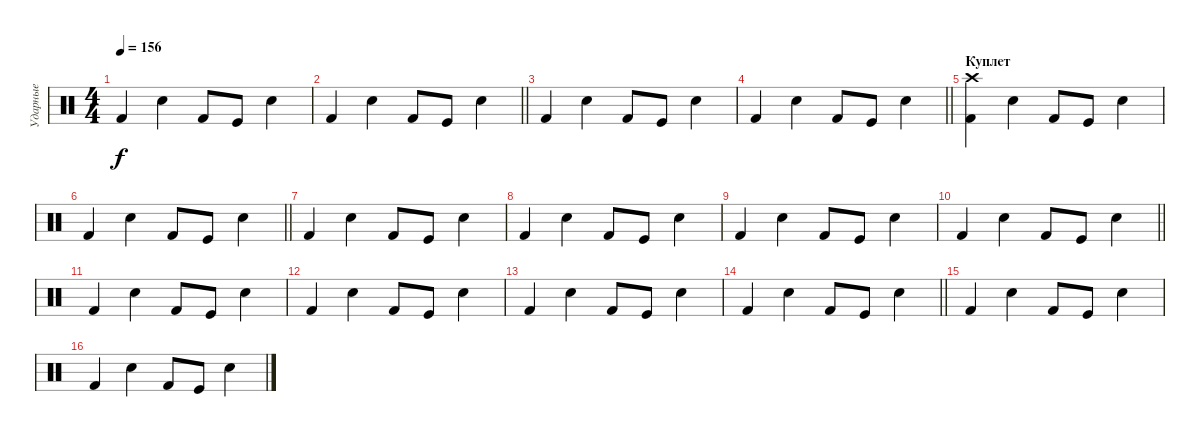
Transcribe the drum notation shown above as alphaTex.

\track ("Ударные" "Ударные") {instrument percussion}
\staff {score}
\articulation defaults
\ts (4 4)
\tempo 156
\clef neutral
\ks c "Kick (hit) 2".4{dy f} "Snare (hit) 2".4 "Kick (hit) 2".8 "Kick (hit)".8 "Snare (hit) 2".4
|
\barLineRight lightlight "Kick (hit) 2".4 "Snare (hit) 2".4 "Kick (hit) 2".8 "Kick (hit)".8 "Snare (hit) 2".4
|
"Kick (hit) 2".4 "Snare (hit) 2".4 "Kick (hit) 2".8 "Kick (hit)".8 "Snare (hit) 2".4 |
\barLineRight lightlight "Kick (hit) 2".4 "Snare (hit) 2".4 "Kick (hit) 2".8 "Kick (hit)".8 "Snare (hit) 2".4
|
\section ("" "Куплет")
("Kick (hit) 2" "Crash high (hit)").4 "Snare (hit) 2".4 "Kick (hit) 2".8 "Kick (hit)".8 "Snare (hit) 2".4 |
\barLineRight lightlight "Kick (hit) 2".4 "Snare (hit) 2".4 "Kick (hit) 2".8 "Kick (hit)".8 "Snare (hit) 2".4
|
"Kick (hit) 2".4 "Snare (hit) 2".4 "Kick (hit) 2".8 "Kick (hit)".8 "Snare (hit) 2".4 |
"Kick (hit) 2".4 "Snare (hit) 2".4 "Kick (hit) 2".8 "Kick (hit)".8 "Snare (hit) 2".4 |
"Kick (hit) 2".4 "Snare (hit) 2".4 "Kick (hit) 2".8 "Kick (hit)".8 "Snare (hit) 2".4 |
\barLineRight lightlight "Kick (hit) 2".4 "Snare (hit) 2".4 "Kick (hit) 2".8 "Kick (hit)".8 "Snare (hit) 2".4
|
"Kick (hit) 2".4 "Snare (hit) 2".4 "Kick (hit) 2".8 "Kick (hit)".8 "Snare (hit) 2".4 |
"Kick (hit) 2".4 "Snare (hit) 2".4 "Kick (hit) 2".8 "Kick (hit)".8 "Snare (hit) 2".4 |
"Kick (hit) 2".4 "Snare (hit) 2".4 "Kick (hit) 2".8 "Kick (hit)".8 "Snare (hit) 2".4 |
\barLineRight lightlight "Kick (hit) 2".4 "Snare (hit) 2".4 "Kick (hit) 2".8 "Kick (hit)".8 "Snare (hit) 2".4
|
"Kick (hit) 2".4 "Snare (hit) 2".4 "Kick (hit) 2".8 "Kick (hit)".8 "Snare (hit) 2".4 |
"Kick (hit) 2".4 "Snare (hit) 2".4 "Kick (hit) 2".8 "Kick (hit)".8 "Snare (hit) 2".4
